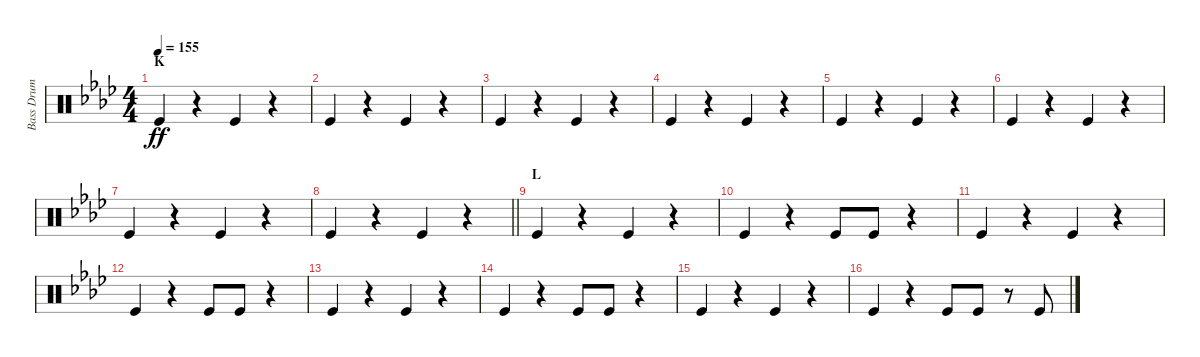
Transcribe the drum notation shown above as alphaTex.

\track ("Bass Drum" "Bass Drum") {instrument percussion}
\staff {score}
\articulation defaults
\ts (4 4)
\section ("" "K")
\tempo 155
\clef neutral
\ks ab "Kick (hit)".4{dy ff}
r.4 "Kick (hit)".4 r.4 |
"Kick (hit)".4 r.4 "Kick (hit)".4 r.4 |
"Kick (hit)".4 r.4 "Kick (hit)".4 r.4 |
"Kick (hit)".4 r.4 "Kick (hit)".4 r.4 |
"Kick (hit)".4 r.4 "Kick (hit)".4 r.4 |
"Kick (hit)".4 r.4 "Kick (hit)".4 r.4 |
"Kick (hit)".4 r.4 "Kick (hit)".4 r.4 |
\barLineRight lightlight "Kick (hit)".4
r.4 "Kick (hit)".4 r.4 |
\section ("" "L")
"Kick (hit)".4 r.4 "Kick (hit)".4 r.4 |
"Kick (hit)".4 r.4 "Kick (hit)".8 "Kick (hit)".8 r.4 |
"Kick (hit)".4 r.4 "Kick (hit)".4 r.4 |
"Kick (hit)".4 r.4 "Kick (hit)".8 "Kick (hit)".8 r.4 |
"Kick (hit)".4 r.4 "Kick (hit)".4 r.4 |
"Kick (hit)".4 r.4 "Kick (hit)".8 "Kick (hit)".8 r.4 |
"Kick (hit)".4 r.4 "Kick (hit)".4 r.4 |
"Kick (hit)".4 r.4 "Kick (hit)".8 "Kick (hit)".8 r.8 "Kick (hit)".8
